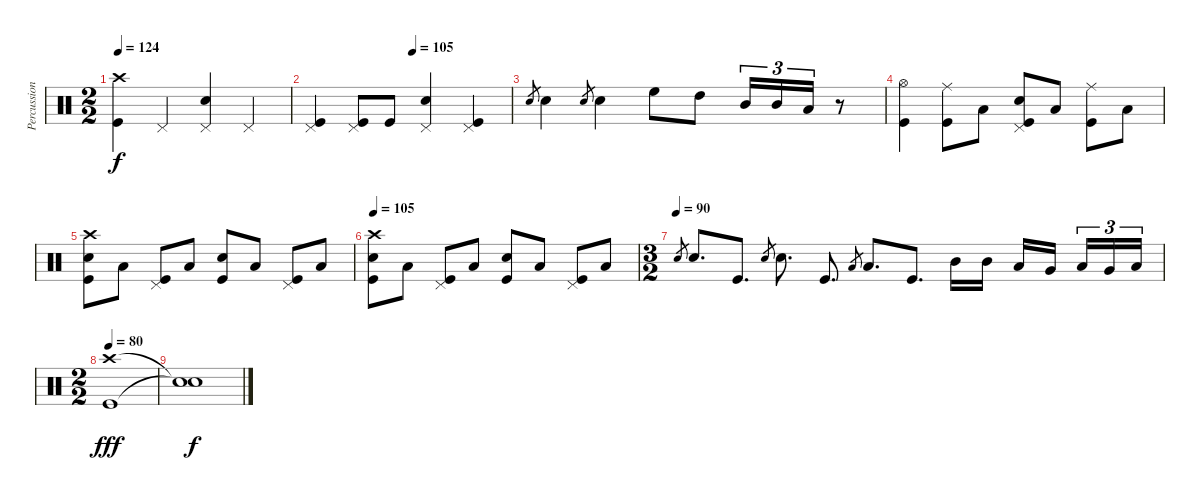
\track ("Percussions" "Percussion") {instrument percussion}
\staff {score}
\articulation defaults
\ts (2 2)
\tempo 124
\clef neutral
\ks c
("Crash high (hit)" "Kick (hit)").4{dy f} "Pedal Hi-Hat (hit)".4 ("Pedal Hi-Hat (hit)" "Snare (hit) 2").4 "Pedal Hi-Hat (hit)".4 |
\tempo (105 0.5)
("Pedal Hi-Hat (hit)" "Kick (hit)").4 ("Pedal Hi-Hat (hit)" "Kick (hit)").8 "Kick (hit)".8 ("Pedal Hi-Hat (hit)" "Snare (hit) 2").4 ("Pedal Hi-Hat (hit)" "Kick (hit)").4 |
"Snare (hit) 2".8{gr} "Snare (hit) 2".4 "Snare (hit) 2".8{gr} "Snare (hit) 2".4 "High Floor Tom (hit)".8 "High Tom (hit)".8 "Mid Tom (hit)".16{tu (3 2)} "Mid Tom (hit)".16{tu (3 2)} "Low Tom (hit)".16{tu (3 2)} r.8 |
("Hi-Hat (open)" "Kick (hit)").4 ("Ride (middle)" "Kick (hit)").8 "Low Floor Tom (hit)".8 ("Pedal Hi-Hat (hit)" "Snare (hit) 2" "Kick (hit)").8 "Low Floor Tom (hit)".8 ("Ride (middle)" "Kick (hit)").8 "Low Floor Tom (hit)".8 |
("Crash high (hit)" "Snare (hit) 2" "Kick (hit)").8 "Low Floor Tom (hit)".8 ("Pedal Hi-Hat (hit)" "Kick (hit)").8 "Low Floor Tom (hit)".8 ("Snare (hit) 2" "Kick (hit)").8 "Low Floor Tom (hit)".8 ("Pedal Hi-Hat (hit)" "Kick (hit)").8 "Low Floor Tom (hit)".8 |
\tempo 105
("Crash high (hit)" "Snare (hit) 2" "Kick (hit)").8 "Low Floor Tom (hit)".8 ("Pedal Hi-Hat (hit)" "Kick (hit)").8 "Low Floor Tom (hit)".8 ("Snare (hit) 2" "Kick (hit)").8 "Low Floor Tom (hit)".8 ("Pedal Hi-Hat (hit)" "Kick (hit)").8 "Low Floor Tom (hit)".8 |
\ts (3 2)
\tempo (90)
"Snare (hit) 2".8{gr} "Snare (hit) 2".8{d} "Kick (hit)".8{d} "Snare (hit) 2".8{gr} "Snare (hit) 2".8{d} "Kick (hit)".8{d} "Low Tom (hit)".8{gr} "Low Tom (hit)".8{d} "Kick (hit)".8{d} "Mid Tom (hit)".16 "Mid Tom (hit)".16 "Low Tom (hit)".16 "Very Low Tom (hit)".16 "Low Floor Tom (hit)".16{tu (3 2)} "Very Low Tom (hit)".16{tu (3 2)} "Low Floor Tom (hit)".16{tu (3 2)} |
\ts (2 2)
\tempo 80
("Crash high (hit)" "Kick (hit)").1{dy fff} |
("Snare (hit)"{t} "Snare (hit)"{t}).1{dy f}
